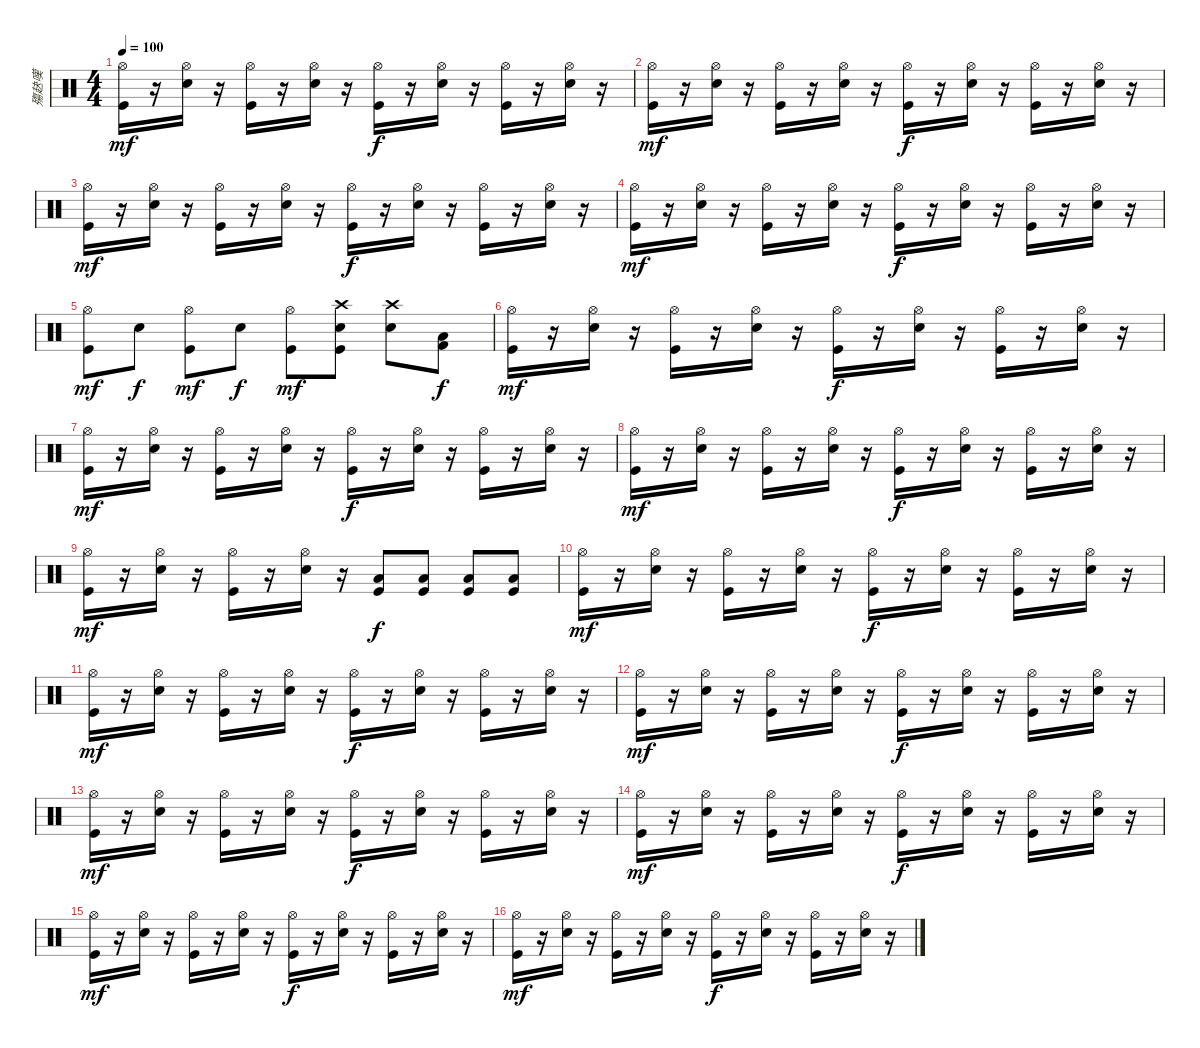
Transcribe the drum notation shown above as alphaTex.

\track ("殤赽嘆" "殤赽嘆") {instrument percussion}
\staff {score}
\articulation defaults
\ts (4 4)
\tempo 100
\clef neutral
\ks c
("Hi-Hat (open)" "Kick (hit)").16{dy mf} r.16 ("Hi-Hat (open)" "Snare (hit) 2").16 r.16 ("Hi-Hat (open)" "Kick (hit)").16 r.16 ("Hi-Hat (open)" "Snare (hit) 2").16 r.16 ("Hi-Hat (open)" "Kick (hit)").16{dy f} r.16 ("Hi-Hat (open)" "Snare (hit) 2").16 r.16 ("Hi-Hat (open)" "Kick (hit)").16 r.16 ("Hi-Hat (open)" "Snare (hit) 2").16 r.16 |
("Hi-Hat (open)" "Kick (hit)").16{dy mf} r.16 ("Hi-Hat (open)" "Snare (hit) 2").16 r.16 ("Hi-Hat (open)" "Kick (hit)").16 r.16 ("Hi-Hat (open)" "Snare (hit) 2").16 r.16 ("Hi-Hat (open)" "Kick (hit)").16{dy f} r.16 ("Hi-Hat (open)" "Snare (hit) 2").16 r.16 ("Hi-Hat (open)" "Kick (hit)").16 r.16 ("Hi-Hat (open)" "Snare (hit) 2").16 r.16 |
("Hi-Hat (open)" "Kick (hit)").16{dy mf} r.16 ("Hi-Hat (open)" "Snare (hit) 2").16 r.16 ("Hi-Hat (open)" "Kick (hit)").16 r.16 ("Hi-Hat (open)" "Snare (hit) 2").16 r.16 ("Hi-Hat (open)" "Kick (hit)").16{dy f} r.16 ("Hi-Hat (open)" "Snare (hit) 2").16 r.16 ("Hi-Hat (open)" "Kick (hit)").16 r.16 ("Hi-Hat (open)" "Snare (hit) 2").16 r.16 |
("Hi-Hat (open)" "Kick (hit)").16{dy mf} r.16 ("Hi-Hat (open)" "Snare (hit) 2").16 r.16 ("Hi-Hat (open)" "Kick (hit)").16 r.16 ("Hi-Hat (open)" "Snare (hit) 2").16 r.16 ("Hi-Hat (open)" "Kick (hit)").16{dy f} r.16 ("Hi-Hat (open)" "Snare (hit) 2").16 r.16 ("Hi-Hat (open)" "Kick (hit)").16 r.16 ("Hi-Hat (open)" "Snare (hit) 2").16 r.16 |
("Hi-Hat (open)" "Kick (hit)").8{dy mf} "Snare (hit) 2".8{dy f} ("Hi-Hat (open)" "Kick (hit)").8{dy mf} "Snare (hit) 2".8{dy f} ("Hi-Hat (open)" "Kick (hit)").8{dy mf} ("Crash high (hit)" "Snare (hit) 2" "Kick (hit)").8 ("Crash high (hit)" "Snare (hit) 2").8 ("Low Tom (hit)" "Kick (hit) 2").8{dy f} |
("Hi-Hat (open)" "Kick (hit)").16{dy mf} r.16 ("Hi-Hat (open)" "Snare (hit) 2").16 r.16 ("Hi-Hat (open)" "Kick (hit)").16 r.16 ("Hi-Hat (open)" "Snare (hit) 2").16 r.16 ("Hi-Hat (open)" "Kick (hit)").16{dy f} r.16 ("Hi-Hat (open)" "Snare (hit) 2").16 r.16 ("Hi-Hat (open)" "Kick (hit)").16 r.16 ("Hi-Hat (open)" "Snare (hit) 2").16 r.16 |
("Hi-Hat (open)" "Kick (hit)").16{dy mf} r.16 ("Hi-Hat (open)" "Snare (hit) 2").16 r.16 ("Hi-Hat (open)" "Kick (hit)").16 r.16 ("Hi-Hat (open)" "Snare (hit) 2").16 r.16 ("Hi-Hat (open)" "Kick (hit)").16{dy f} r.16 ("Hi-Hat (open)" "Snare (hit) 2").16 r.16 ("Hi-Hat (open)" "Kick (hit)").16 r.16 ("Hi-Hat (open)" "Snare (hit) 2").16 r.16 |
("Hi-Hat (open)" "Kick (hit)").16{dy mf} r.16 ("Hi-Hat (open)" "Snare (hit) 2").16 r.16 ("Hi-Hat (open)" "Kick (hit)").16 r.16 ("Hi-Hat (open)" "Snare (hit) 2").16 r.16 ("Hi-Hat (open)" "Kick (hit)").16{dy f} r.16 ("Hi-Hat (open)" "Snare (hit) 2").16 r.16 ("Hi-Hat (open)" "Kick (hit)").16 r.16 ("Hi-Hat (open)" "Snare (hit) 2").16 r.16 |
("Hi-Hat (open)" "Kick (hit)").16{dy mf} r.16 ("Hi-Hat (open)" "Snare (hit) 2").16 r.16 ("Hi-Hat (open)" "Kick (hit)").16 r.16 ("Hi-Hat (open)" "Snare (hit) 2").16 r.16 ("Low Tom (hit)" "Kick (hit)").8{dy f} ("Low Tom (hit)" "Kick (hit)").8 ("Low Tom (hit)" "Kick (hit)").8 ("Low Tom (hit)" "Kick (hit)").8 |
("Hi-Hat (open)" "Kick (hit)").16{dy mf} r.16 ("Hi-Hat (open)" "Snare (hit) 2").16 r.16 ("Hi-Hat (open)" "Kick (hit)").16 r.16 ("Hi-Hat (open)" "Snare (hit) 2").16 r.16 ("Hi-Hat (open)" "Kick (hit)").16{dy f} r.16 ("Hi-Hat (open)" "Snare (hit) 2").16 r.16 ("Hi-Hat (open)" "Kick (hit)").16 r.16 ("Hi-Hat (open)" "Snare (hit) 2").16 r.16 |
("Hi-Hat (open)" "Kick (hit)").16{dy mf} r.16 ("Hi-Hat (open)" "Snare (hit) 2").16 r.16 ("Hi-Hat (open)" "Kick (hit)").16 r.16 ("Hi-Hat (open)" "Snare (hit) 2").16 r.16 ("Hi-Hat (open)" "Kick (hit)").16{dy f} r.16 ("Hi-Hat (open)" "Snare (hit) 2").16 r.16 ("Hi-Hat (open)" "Kick (hit)").16 r.16 ("Hi-Hat (open)" "Snare (hit) 2").16 r.16 |
("Hi-Hat (open)" "Kick (hit)").16{dy mf} r.16 ("Hi-Hat (open)" "Snare (hit) 2").16 r.16 ("Hi-Hat (open)" "Kick (hit)").16 r.16 ("Hi-Hat (open)" "Snare (hit) 2").16 r.16 ("Hi-Hat (open)" "Kick (hit)").16{dy f} r.16 ("Hi-Hat (open)" "Snare (hit) 2").16 r.16 ("Hi-Hat (open)" "Kick (hit)").16 r.16 ("Hi-Hat (open)" "Snare (hit) 2").16 r.16 |
("Hi-Hat (open)" "Kick (hit)").16{dy mf} r.16 ("Hi-Hat (open)" "Snare (hit) 2").16 r.16 ("Hi-Hat (open)" "Kick (hit)").16 r.16 ("Hi-Hat (open)" "Snare (hit) 2").16 r.16 ("Hi-Hat (open)" "Kick (hit)").16{dy f} r.16 ("Hi-Hat (open)" "Snare (hit) 2").16 r.16 ("Hi-Hat (open)" "Kick (hit)").16 r.16 ("Hi-Hat (open)" "Snare (hit) 2").16 r.16 |
("Hi-Hat (open)" "Kick (hit)").16{dy mf} r.16 ("Hi-Hat (open)" "Snare (hit) 2").16 r.16 ("Hi-Hat (open)" "Kick (hit)").16 r.16 ("Hi-Hat (open)" "Snare (hit) 2").16 r.16 ("Hi-Hat (open)" "Kick (hit)").16{dy f} r.16 ("Hi-Hat (open)" "Snare (hit) 2").16 r.16 ("Hi-Hat (open)" "Kick (hit)").16 r.16 ("Hi-Hat (open)" "Snare (hit) 2").16 r.16 |
("Hi-Hat (open)" "Kick (hit)").16{dy mf} r.16 ("Hi-Hat (open)" "Snare (hit) 2").16 r.16 ("Hi-Hat (open)" "Kick (hit)").16 r.16 ("Hi-Hat (open)" "Snare (hit) 2").16 r.16 ("Hi-Hat (open)" "Kick (hit)").16{dy f} r.16 ("Hi-Hat (open)" "Snare (hit) 2").16 r.16 ("Hi-Hat (open)" "Kick (hit)").16 r.16 ("Hi-Hat (open)" "Snare (hit) 2").16 r.16 |
("Hi-Hat (open)" "Kick (hit)").16{dy mf} r.16 ("Hi-Hat (open)" "Snare (hit) 2").16 r.16 ("Hi-Hat (open)" "Kick (hit)").16 r.16 ("Hi-Hat (open)" "Snare (hit) 2").16 r.16 ("Hi-Hat (open)" "Kick (hit)").16{dy f} r.16 ("Hi-Hat (open)" "Snare (hit) 2").16 r.16 ("Hi-Hat (open)" "Kick (hit)").16 r.16 ("Hi-Hat (open)" "Snare (hit) 2").16 r.16
